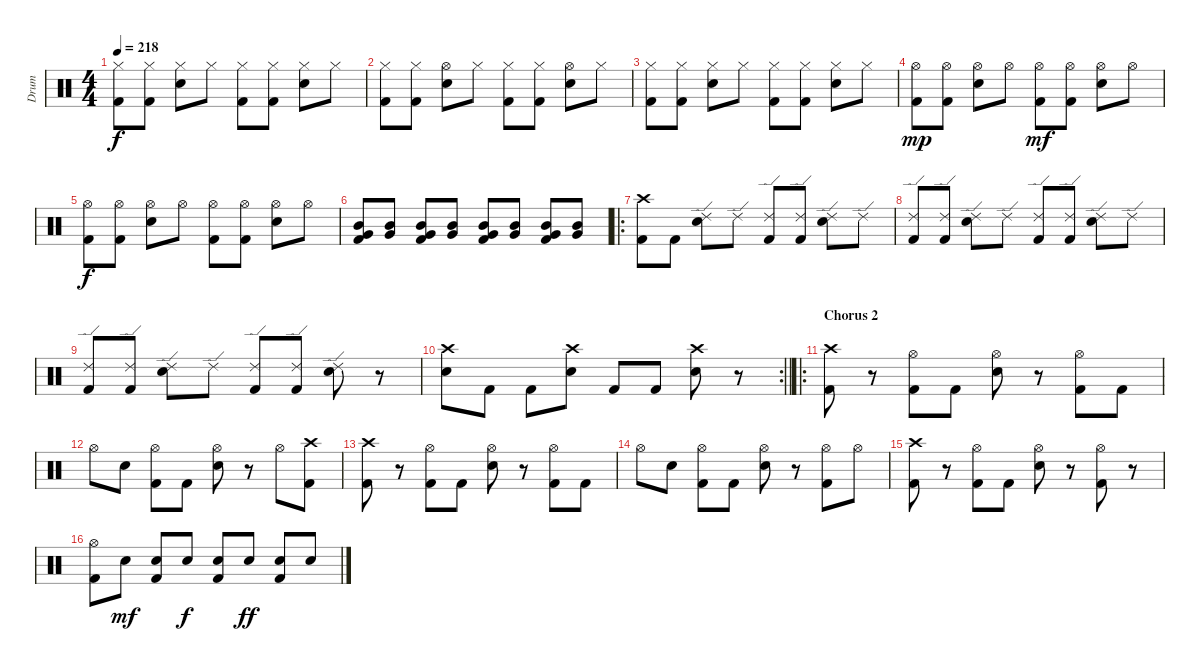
\track ("Drum" "Drum") {instrument percussion}
\staff {score}
\articulation defaults
\ts (4 4)
\tempo 218
\clef neutral
\ks c
("Kick (hit) 2" "Hi-Hat (closed)").8{dy f} ("Kick (hit) 2" "Hi-Hat (closed)").8 ("Snare (hit) 2" "Hi-Hat (closed)").8 "Hi-Hat (closed)".8 ("Kick (hit) 2" "Hi-Hat (closed)").8 ("Kick (hit) 2" "Hi-Hat (closed)").8 ("Snare (hit) 2" "Hi-Hat (closed)").8 "Hi-Hat (closed)".8 |
("Kick (hit) 2" "Hi-Hat (closed)").8 ("Kick (hit) 2" "Hi-Hat (closed)").8 ("Snare (hit) 2" "Hi-Hat (open)").8 "Hi-Hat (closed)".8 ("Kick (hit) 2" "Hi-Hat (closed)").8 ("Kick (hit) 2" "Hi-Hat (closed)").8 ("Snare (hit) 2" "Hi-Hat (open)").8 "Hi-Hat (closed)".8 |
("Kick (hit) 2" "Hi-Hat (closed)").8 ("Kick (hit) 2" "Hi-Hat (closed)").8 ("Snare (hit) 2" "Hi-Hat (closed)").8 "Hi-Hat (closed)".8 ("Kick (hit) 2" "Hi-Hat (closed)").8 ("Kick (hit) 2" "Hi-Hat (closed)").8 ("Snare (hit) 2" "Hi-Hat (closed)").8 "Hi-Hat (closed)".8 |
("Kick (hit) 2" "Hi-Hat (open)").8{dy mp} ("Kick (hit) 2" "Hi-Hat (open)").8 ("Snare (hit) 2" "Hi-Hat (open)").8 "Hi-Hat (open)".8 ("Kick (hit) 2" "Hi-Hat (open)").8{dy mf} ("Kick (hit) 2" "Hi-Hat (open)").8 ("Snare (hit) 2" "Hi-Hat (open)").8 "Hi-Hat (open)".8 |
("Kick (hit) 2" "Hi-Hat (open)").8{dy f} ("Kick (hit) 2" "Hi-Hat (open)").8 ("Snare (hit) 2" "Hi-Hat (open)").8 "Hi-Hat (open)".8 ("Kick (hit) 2" "Hi-Hat (open)").8 ("Kick (hit) 2" "Hi-Hat (open)").8 ("Snare (hit) 2" "Hi-Hat (open)").8 "Hi-Hat (open)".8 |
("Mid Tom (hit)" "Very Low Tom (hit)" "Kick (hit) 2").8 ("Mid Tom (hit)" "Very Low Tom (hit)").8 ("Mid Tom (hit)" "Very Low Tom (hit)" "Kick (hit) 2").8 ("Mid Tom (hit)" "Very Low Tom (hit)").8 ("Mid Tom (hit)" "Very Low Tom (hit)" "Kick (hit) 2").8 ("Mid Tom (hit)" "Very Low Tom (hit)").8 ("Mid Tom (hit)" "Very Low Tom (hit)" "Kick (hit) 2").8 ("Mid Tom (hit)" "Very Low Tom (hit)").8 |
\ro
("Kick (hit) 2" "Crash high (hit)").8 "Kick (hit) 2".8 ("Snare (hit) 2" "Ride (edge) 2").8 "Ride (edge) 2".8 ("Kick (hit) 2" "Ride (edge) 2").8 ("Kick (hit) 2" "Ride (edge) 2").8 ("Snare (hit) 2" "Ride (edge) 2").8 "Ride (edge) 2".8 |
("Kick (hit) 2" "Ride (edge) 2").8 ("Kick (hit) 2" "Ride (edge) 2").8 ("Snare (hit) 2" "Ride (edge) 2").8 "Ride (edge) 2".8 ("Kick (hit) 2" "Ride (edge) 2").8 ("Kick (hit) 2" "Ride (edge) 2").8 ("Snare (hit) 2" "Ride (edge) 2").8 "Ride (edge) 2".8 |
("Kick (hit) 2" "Ride (edge) 2").8 ("Kick (hit) 2" "Ride (edge) 2").8 ("Snare (hit) 2" "Ride (edge) 2").8 "Ride (edge) 2".8 ("Kick (hit) 2" "Ride (edge) 2").8 ("Kick (hit) 2" "Ride (edge) 2").8 ("Snare (hit) 2" "Ride (edge) 2").8 r.8 |
\rc 2
\barLineRight lightlight
("Snare (hit) 2" "Crash high (hit)").8 "Kick (hit) 2".8 "Kick (hit) 2".8 ("Snare (hit) 2" "Crash high (hit)").8 "Kick (hit) 2".8 "Kick (hit) 2".8 ("Snare (hit) 2" "Crash high (hit)").8 r.8 |
\ro
\section ("" "Chorus 2")
("Kick (hit) 2" "Crash high (hit)").8 r.8 ("Kick (hit) 2" "Hi-Hat (open)").8 "Kick (hit) 2".8 ("Snare (hit) 2" "Hi-Hat (open)").8 r.8 ("Kick (hit) 2" "Hi-Hat (open)").8 "Kick (hit) 2".8 |
"Hi-Hat (open)".8 "Snare (hit) 2".8 ("Kick (hit) 2" "Hi-Hat (open)").8 "Kick (hit) 2".8 ("Snare (hit) 2" "Hi-Hat (open)").8 r.8 "Hi-Hat (open)".8 ("Kick (hit) 2" "Crash high (hit)").8 |
("Kick (hit) 2" "Crash high (hit)").8 r.8 ("Kick (hit) 2" "Hi-Hat (open)").8 "Kick (hit) 2".8 ("Snare (hit) 2" "Hi-Hat (open)").8 r.8 ("Kick (hit) 2" "Hi-Hat (open)").8 "Kick (hit) 2".8 |
"Hi-Hat (open)".8 "Snare (hit) 2".8 ("Kick (hit) 2" "Hi-Hat (open)").8 "Kick (hit) 2".8 ("Snare (hit) 2" "Hi-Hat (open)").8 r.8 ("Kick (hit) 2" "Hi-Hat (open)").8 "Hi-Hat (open)".8 |
("Kick (hit) 2" "Crash high (hit)").8 r.8 ("Kick (hit) 2" "Hi-Hat (open)").8 "Kick (hit) 2".8 ("Snare (hit) 2" "Hi-Hat (open)").8 r.8 ("Kick (hit) 2" "Hi-Hat (open)").8 r.8 |
("Kick (hit) 2" "Hi-Hat (open)").8 "Snare (hit) 2".8{dy mf} ("Kick (hit) 2" "Snare (hit) 2").8 "Snare (hit) 2".8{dy f} ("Kick (hit) 2" "Snare (hit) 2").8 "Snare (hit) 2".8{dy ff} ("Kick (hit) 2" "Snare (hit) 2").8 "Snare (hit) 2".8
